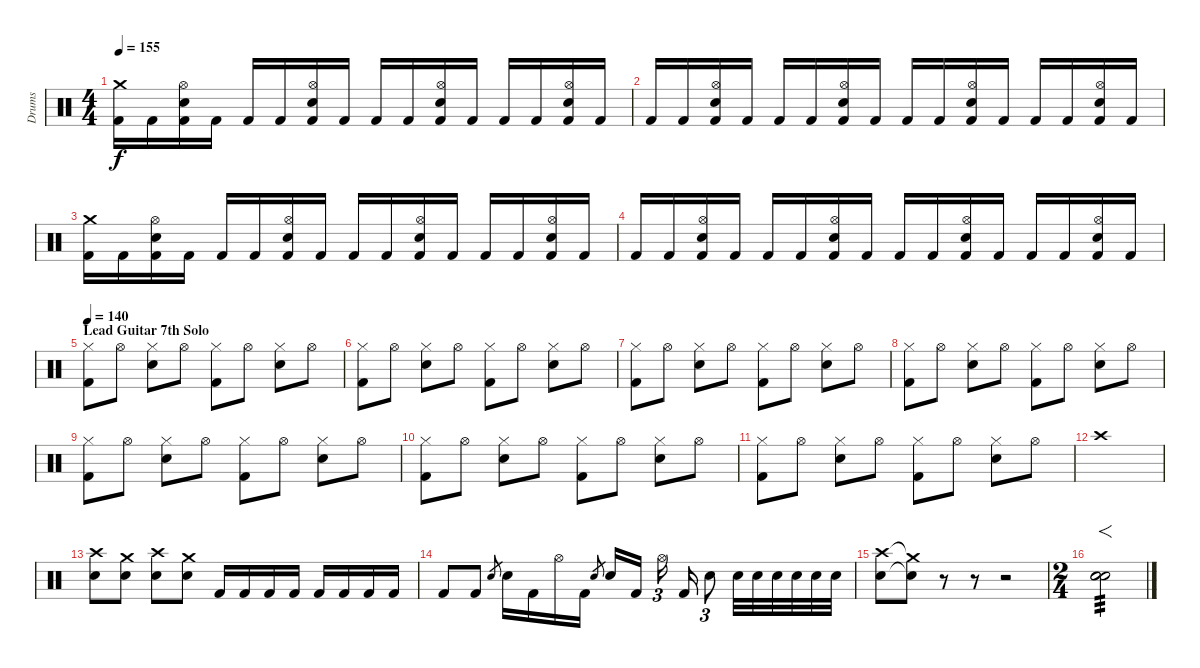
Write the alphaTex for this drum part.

\track ("Drums" "Drums") {instrument percussion}
\staff {score}
\articulation defaults
\ts (4 4)
\tempo 155
\clef neutral
\ks c
("Crash medium (hit)" "Kick (hit) 2").16{dy f} "Kick (hit) 2".16 ("Hi-Hat (open)" "Electric Snare (hit)" "Kick (hit) 2").16 "Kick (hit) 2".16 "Kick (hit) 2".16 "Kick (hit) 2".16 ("Hi-Hat (open)" "Electric Snare (hit)" "Kick (hit) 2").16 "Kick (hit) 2".16 "Kick (hit) 2".16 "Kick (hit) 2".16 ("Hi-Hat (open)" "Electric Snare (hit)" "Kick (hit) 2").16 "Kick (hit) 2".16 "Kick (hit) 2".16 "Kick (hit) 2".16 ("Hi-Hat (open)" "Electric Snare (hit)" "Kick (hit) 2").16 "Kick (hit) 2".16 |
"Kick (hit) 2".16 "Kick (hit) 2".16 ("Hi-Hat (open)" "Electric Snare (hit)" "Kick (hit) 2").16 "Kick (hit) 2".16 "Kick (hit) 2".16 "Kick (hit) 2".16 ("Hi-Hat (open)" "Electric Snare (hit)" "Kick (hit) 2").16 "Kick (hit) 2".16 "Kick (hit) 2".16 "Kick (hit) 2".16 ("Hi-Hat (open)" "Electric Snare (hit)" "Kick (hit) 2").16 "Kick (hit) 2".16 "Kick (hit) 2".16 "Kick (hit) 2".16 ("Hi-Hat (open)" "Electric Snare (hit)" "Kick (hit) 2").16 "Kick (hit) 2".16 |
("Crash medium (hit)" "Kick (hit) 2").16 "Kick (hit) 2".16 ("Hi-Hat (open)" "Electric Snare (hit)" "Kick (hit) 2").16 "Kick (hit) 2".16 "Kick (hit) 2".16 "Kick (hit) 2".16 ("Hi-Hat (open)" "Electric Snare (hit)" "Kick (hit) 2").16 "Kick (hit) 2".16 "Kick (hit) 2".16 "Kick (hit) 2".16 ("Hi-Hat (open)" "Electric Snare (hit)" "Kick (hit) 2").16 "Kick (hit) 2".16 "Kick (hit) 2".16 "Kick (hit) 2".16 ("Hi-Hat (open)" "Electric Snare (hit)" "Kick (hit) 2").16 "Kick (hit) 2".16 |
"Kick (hit) 2".16 "Kick (hit) 2".16 ("Hi-Hat (open)" "Electric Snare (hit)" "Kick (hit) 2").16 "Kick (hit) 2".16 "Kick (hit) 2".16 "Kick (hit) 2".16 ("Hi-Hat (open)" "Electric Snare (hit)" "Kick (hit) 2").16 "Kick (hit) 2".16 "Kick (hit) 2".16 "Kick (hit) 2".16 ("Hi-Hat (open)" "Electric Snare (hit)" "Kick (hit) 2").16 "Kick (hit) 2".16 "Kick (hit) 2".16 "Kick (hit) 2".16 ("Hi-Hat (open)" "Electric Snare (hit)" "Kick (hit) 2").16 "Kick (hit) 2".16 |
\section ("" "Lead Guitar 7th Solo")
\tempo 140
("Hi-Hat (closed)" "Kick (hit) 2").8 "Hi-Hat (open)".8 ("Hi-Hat (closed)" "Electric Snare (hit)").8 "Hi-Hat (open)".8 ("Hi-Hat (closed)" "Kick (hit) 2").8 "Hi-Hat (open)".8 ("Hi-Hat (closed)" "Electric Snare (hit)").8 "Hi-Hat (open)".8 |
("Hi-Hat (closed)" "Kick (hit) 2").8 "Hi-Hat (open)".8 ("Hi-Hat (closed)" "Electric Snare (hit)").8 "Hi-Hat (open)".8 ("Hi-Hat (closed)" "Kick (hit) 2").8 "Hi-Hat (open)".8 ("Hi-Hat (closed)" "Electric Snare (hit)").8 "Hi-Hat (open)".8 |
("Hi-Hat (closed)" "Kick (hit) 2").8 "Hi-Hat (open)".8 ("Hi-Hat (closed)" "Electric Snare (hit)").8 "Hi-Hat (open)".8 ("Hi-Hat (closed)" "Kick (hit) 2").8 "Hi-Hat (open)".8 ("Hi-Hat (closed)" "Electric Snare (hit)").8 "Hi-Hat (open)".8 |
("Hi-Hat (closed)" "Kick (hit) 2").8 "Hi-Hat (open)".8 ("Hi-Hat (closed)" "Electric Snare (hit)").8 "Hi-Hat (open)".8 ("Hi-Hat (closed)" "Kick (hit) 2").8 "Hi-Hat (open)".8 ("Hi-Hat (closed)" "Electric Snare (hit)").8 "Hi-Hat (open)".8 |
("Hi-Hat (closed)" "Kick (hit) 2").8 "Hi-Hat (open)".8 ("Hi-Hat (closed)" "Electric Snare (hit)").8 "Hi-Hat (open)".8 ("Hi-Hat (closed)" "Kick (hit) 2").8 "Hi-Hat (open)".8 ("Hi-Hat (closed)" "Electric Snare (hit)").8 "Hi-Hat (open)".8 |
("Hi-Hat (closed)" "Kick (hit) 2").8 "Hi-Hat (open)".8 ("Hi-Hat (closed)" "Electric Snare (hit)").8 "Hi-Hat (open)".8 ("Hi-Hat (closed)" "Kick (hit) 2").8 "Hi-Hat (open)".8 ("Hi-Hat (closed)" "Electric Snare (hit)").8 "Hi-Hat (open)".8 |
("Hi-Hat (closed)" "Kick (hit) 2").8 "Hi-Hat (open)".8 ("Hi-Hat (closed)" "Electric Snare (hit)").8 "Hi-Hat (open)".8 ("Hi-Hat (closed)" "Kick (hit) 2").8 "Hi-Hat (open)".8 ("Hi-Hat (closed)" "Electric Snare (hit)").8 "Hi-Hat (open)".8 |
"Crash high (hit)".1 |
("Crash high (hit)" "Electric Snare (hit)").8 ("Crash medium (hit)" "Electric Snare (hit)").8 ("Crash high (hit)" "Electric Snare (hit)").8 ("Crash medium (hit)" "Electric Snare (hit)").8 "Kick (hit) 2".16 "Kick (hit) 2".16 "Kick (hit) 2".16 "Kick (hit) 2".16 "Kick (hit) 2".16 "Kick (hit) 2".16 "Kick (hit) 2".16 "Kick (hit) 2".16 |
"Kick (hit) 2".8 "Kick (hit) 2".8 "Electric Snare (hit)".8{gr} "Electric Snare (hit)".16 "Kick (hit) 2".16 "Hi-Hat (open)".16 "Kick (hit) 2".16 "Electric Snare (hit)".8{gr} "Electric Snare (hit)".16 "Kick (hit) 2".16 "Hi-Hat (open)".16{tu (3 2)} "Kick (hit) 2".16 "Electric Snare (hit)".8{tu (3 2)} "Electric Snare (hit)".32 "Electric Snare (hit)".32 "Electric Snare (hit)".32 "Electric Snare (hit)".32 "Electric Snare (hit)".32 "Electric Snare (hit)".32 |
("Crash high (hit)" "Electric Snare (hit)").8 ("Crash medium (hit)"{t} "Electric Snare (hit)"{t}).8 r.8 r.8 r.2 |
\ts (2 4)
("Electric Snare (hit)" "Snare (hit)"{x} "Electric Snare (hit)").2{f tp 3}
